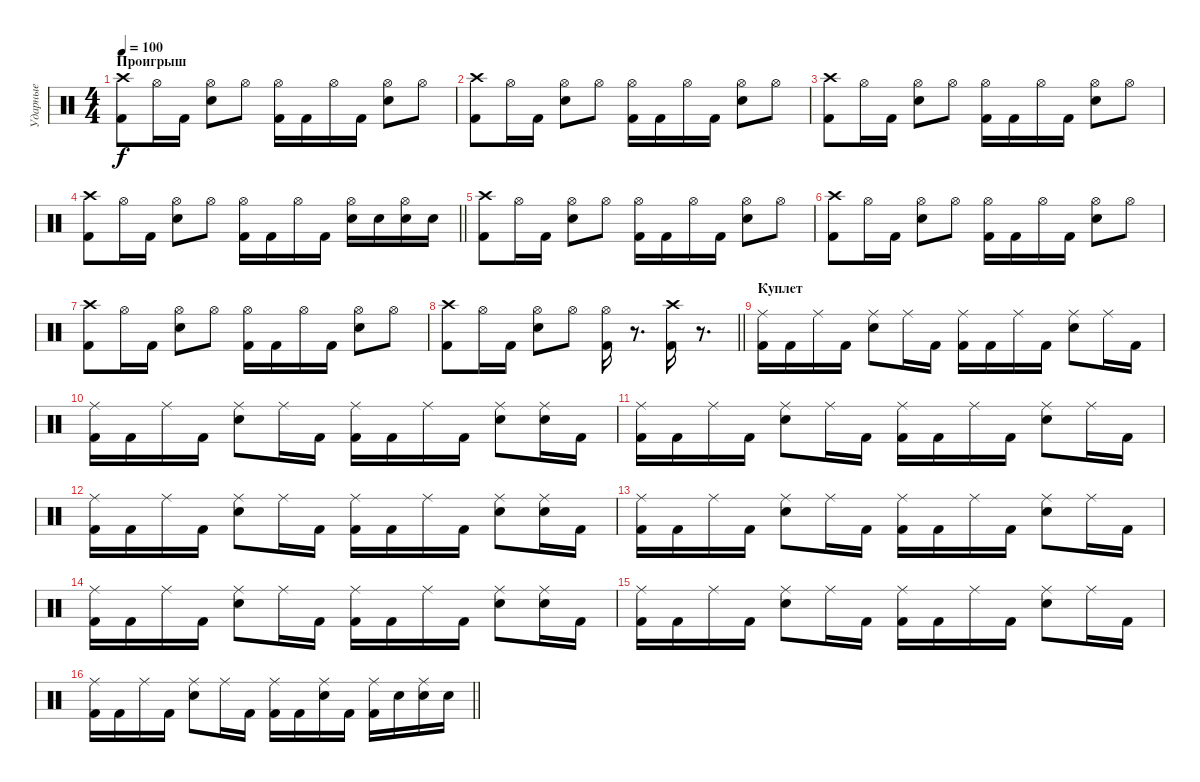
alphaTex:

\track ("Ударные" "Ударные") {instrument percussion}
\staff {score}
\articulation defaults
\ts (4 4)
\section ("" "Проигрыш")
\tempo 100
\clef neutral
\ks c
("Kick (hit) 2" "Crash high (hit)").8{dy f} "Hi-Hat (open)".16 "Kick (hit) 2".16 ("Hi-Hat (open)" "Snare (hit) 2").8 "Hi-Hat (open)".8 ("Hi-Hat (open)" "Kick (hit) 2").16 "Kick (hit) 2".16 "Hi-Hat (open)".16 "Kick (hit) 2".16 ("Hi-Hat (open)" "Snare (hit) 2").8 "Hi-Hat (open)".8 |
("Kick (hit) 2" "Crash high (hit)").8 "Hi-Hat (open)".16 "Kick (hit) 2".16 ("Hi-Hat (open)" "Snare (hit) 2").8 "Hi-Hat (open)".8 ("Hi-Hat (open)" "Kick (hit) 2").16 "Kick (hit) 2".16 "Hi-Hat (open)".16 "Kick (hit) 2".16 ("Hi-Hat (open)" "Snare (hit) 2").8 "Hi-Hat (open)".8 |
("Kick (hit) 2" "Crash high (hit)").8 "Hi-Hat (open)".16 "Kick (hit) 2".16 ("Hi-Hat (open)" "Snare (hit) 2").8 "Hi-Hat (open)".8 ("Hi-Hat (open)" "Kick (hit) 2").16 "Kick (hit) 2".16 "Hi-Hat (open)".16 "Kick (hit) 2".16 ("Hi-Hat (open)" "Snare (hit) 2").8 "Hi-Hat (open)".8 |
\barLineRight lightlight
("Kick (hit) 2" "Crash high (hit)").8 "Hi-Hat (open)".16 "Kick (hit) 2".16 ("Hi-Hat (open)" "Snare (hit) 2").8 "Hi-Hat (open)".8 ("Hi-Hat (open)" "Kick (hit) 2").16 "Kick (hit) 2".16 "Hi-Hat (open)".16 "Kick (hit) 2".16 ("Hi-Hat (open)" "Snare (hit) 2").16 "Snare (hit) 2".16 ("Snare (hit) 2" "Hi-Hat (open)").16 "Snare (hit) 2".16 |
("Kick (hit) 2" "Crash high (hit)").8 "Hi-Hat (open)".16 "Kick (hit) 2".16 ("Hi-Hat (open)" "Snare (hit) 2").8 "Hi-Hat (open)".8 ("Hi-Hat (open)" "Kick (hit) 2").16 "Kick (hit) 2".16 "Hi-Hat (open)".16 "Kick (hit) 2".16 ("Hi-Hat (open)" "Snare (hit) 2").8 "Hi-Hat (open)".8 |
("Kick (hit) 2" "Crash high (hit)").8 "Hi-Hat (open)".16 "Kick (hit) 2".16 ("Hi-Hat (open)" "Snare (hit) 2").8 "Hi-Hat (open)".8 ("Hi-Hat (open)" "Kick (hit) 2").16 "Kick (hit) 2".16 "Hi-Hat (open)".16 "Kick (hit) 2".16 ("Hi-Hat (open)" "Snare (hit) 2").8 "Hi-Hat (open)".8 |
("Kick (hit) 2" "Crash high (hit)").8 "Hi-Hat (open)".16 "Kick (hit) 2".16 ("Hi-Hat (open)" "Snare (hit) 2").8 "Hi-Hat (open)".8 ("Hi-Hat (open)" "Kick (hit) 2").16 "Kick (hit) 2".16 "Hi-Hat (open)".16 "Kick (hit) 2".16 ("Hi-Hat (open)" "Snare (hit) 2").8 "Hi-Hat (open)".8 |
\barLineRight lightlight
("Kick (hit) 2" "Crash high (hit)").8 "Hi-Hat (open)".16 "Kick (hit) 2".16 ("Hi-Hat (open)" "Snare (hit) 2").8 "Hi-Hat (open)".8 ("Hi-Hat (open)" "Kick (hit) 2").16 r.8{d} ("Crash high (hit)" "Kick (hit) 2").16 r.8{d} |
\section ("" "Куплет")
("Ride (middle)" "Kick (hit) 2").16 "Kick (hit) 2".16 "Ride (middle)".16 "Kick (hit) 2".16 ("Ride (middle)" "Snare (hit) 2").8 "Ride (middle)".16 "Kick (hit) 2".16 ("Ride (middle)" "Kick (hit) 2").16 "Kick (hit) 2".16 "Ride (middle)".16 "Kick (hit) 2".16 ("Ride (middle)" "Snare (hit) 2").8 "Ride (middle)".16 "Kick (hit) 2".16 |
("Ride (middle)" "Kick (hit) 2").16 "Kick (hit) 2".16 "Ride (middle)".16 "Kick (hit) 2".16 ("Ride (middle)" "Snare (hit) 2").8 "Ride (middle)".16 "Kick (hit) 2".16 ("Ride (middle)" "Kick (hit) 2").16 "Kick (hit) 2".16 "Ride (middle)".16 "Kick (hit) 2".16 ("Ride (middle)" "Snare (hit) 2").8 ("Ride (middle)" "Snare (hit) 2").16 "Kick (hit) 2".16 |
("Ride (middle)" "Kick (hit) 2").16 "Kick (hit) 2".16 "Ride (middle)".16 "Kick (hit) 2".16 ("Ride (middle)" "Snare (hit) 2").8 "Ride (middle)".16 "Kick (hit) 2".16 ("Ride (middle)" "Kick (hit) 2").16 "Kick (hit) 2".16 "Ride (middle)".16 "Kick (hit) 2".16 ("Ride (middle)" "Snare (hit) 2").8 "Ride (middle)".16 "Kick (hit) 2".16 |
("Ride (middle)" "Kick (hit) 2").16 "Kick (hit) 2".16 "Ride (middle)".16 "Kick (hit) 2".16 ("Ride (middle)" "Snare (hit) 2").8 "Ride (middle)".16 "Kick (hit) 2".16 ("Ride (middle)" "Kick (hit) 2").16 "Kick (hit) 2".16 "Ride (middle)".16 "Kick (hit) 2".16 ("Ride (middle)" "Snare (hit) 2").8 ("Ride (middle)" "Snare (hit) 2").16 "Kick (hit) 2".16 |
("Ride (middle)" "Kick (hit) 2").16 "Kick (hit) 2".16 "Ride (middle)".16 "Kick (hit) 2".16 ("Ride (middle)" "Snare (hit) 2").8 "Ride (middle)".16 "Kick (hit) 2".16 ("Ride (middle)" "Kick (hit) 2").16 "Kick (hit) 2".16 "Ride (middle)".16 "Kick (hit) 2".16 ("Ride (middle)" "Snare (hit) 2").8 "Ride (middle)".16 "Kick (hit) 2".16 |
("Ride (middle)" "Kick (hit) 2").16 "Kick (hit) 2".16 "Ride (middle)".16 "Kick (hit) 2".16 ("Ride (middle)" "Snare (hit) 2").8 "Ride (middle)".16 "Kick (hit) 2".16 ("Ride (middle)" "Kick (hit) 2").16 "Kick (hit) 2".16 "Ride (middle)".16 "Kick (hit) 2".16 ("Ride (middle)" "Snare (hit) 2").8 ("Ride (middle)" "Snare (hit) 2").16 "Kick (hit) 2".16 |
("Ride (middle)" "Kick (hit) 2").16 "Kick (hit) 2".16 "Ride (middle)".16 "Kick (hit) 2".16 ("Ride (middle)" "Snare (hit) 2").8 "Ride (middle)".16 "Kick (hit) 2".16 ("Ride (middle)" "Kick (hit) 2").16 "Kick (hit) 2".16 "Ride (middle)".16 "Kick (hit) 2".16 ("Ride (middle)" "Snare (hit) 2").8 "Ride (middle)".16 "Kick (hit) 2".16 |
\barLineRight lightlight
("Ride (middle)" "Kick (hit) 2").16 "Kick (hit) 2".16 "Ride (middle)".16 "Kick (hit) 2".16 ("Ride (middle)" "Snare (hit) 2").8 "Ride (middle)".16 "Kick (hit) 2".16 ("Ride (middle)" "Kick (hit) 2").16 "Kick (hit) 2".16 ("Ride (middle)" "Snare (hit) 2").16 "Kick (hit) 2".16 ("Ride (middle)" "Kick (hit) 2").16 "Snare (hit) 2".16 ("Ride (middle)" "Snare (hit) 2").16 "Snare (hit) 2".16
